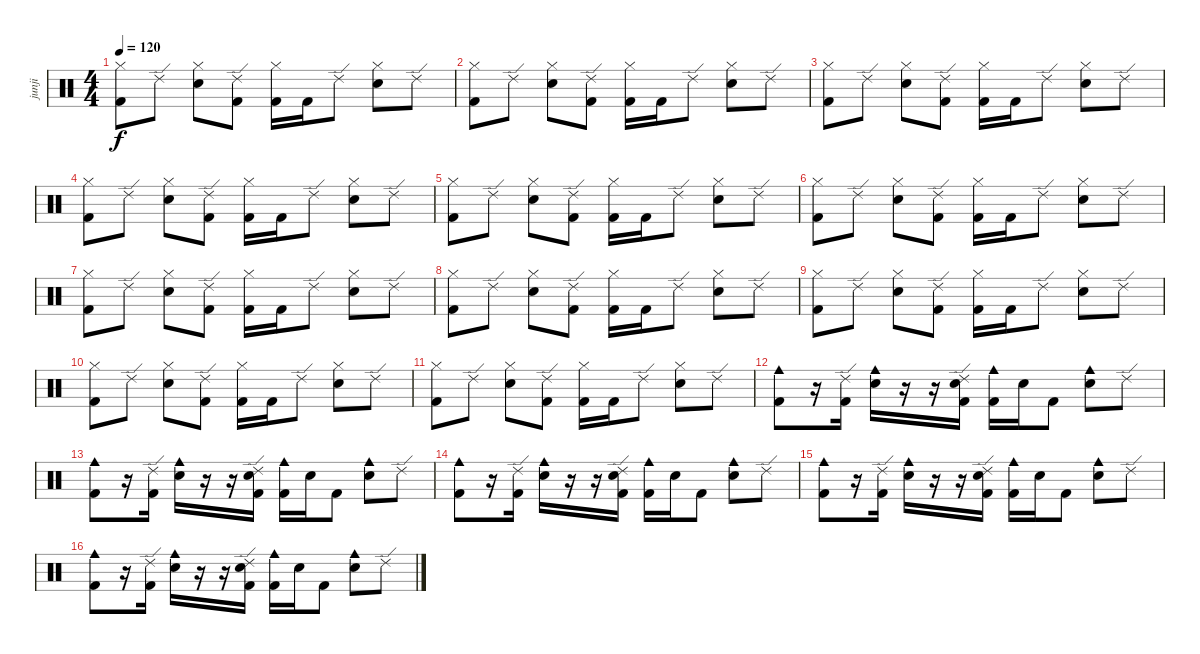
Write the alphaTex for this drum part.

\track ("junji" "junji") {instrument percussion}
\staff {score}
\articulation defaults
\ts (4 4)
\tempo 120
\clef neutral
\ks c
("Hi-Hat (closed)" "Kick (hit) 2").8{dy f} "Ride (edge) 2".8 ("Hi-Hat (closed)" "Snare (hit) 2").8 ("Ride (edge) 2" "Kick (hit) 2").8 ("Hi-Hat (closed)" "Kick (hit) 2"{x}).16 "Kick (hit) 2".16 "Ride (edge) 2".8 ("Hi-Hat (closed)" "Snare (hit) 2").8 "Ride (edge) 2".8 |
("Hi-Hat (closed)" "Kick (hit) 2").8 "Ride (edge) 2".8 ("Hi-Hat (closed)" "Snare (hit) 2").8 ("Ride (edge) 2" "Kick (hit) 2").8 ("Hi-Hat (closed)" "Kick (hit) 2"{x}).16 "Kick (hit) 2".16 "Ride (edge) 2".8 ("Hi-Hat (closed)" "Snare (hit) 2").8 "Ride (edge) 2".8 |
("Hi-Hat (closed)" "Kick (hit) 2").8 "Ride (edge) 2".8 ("Hi-Hat (closed)" "Snare (hit) 2").8 ("Ride (edge) 2" "Kick (hit) 2").8 ("Hi-Hat (closed)" "Kick (hit) 2"{x}).16 "Kick (hit) 2".16 "Ride (edge) 2".8 ("Hi-Hat (closed)" "Snare (hit) 2").8 "Ride (edge) 2".8 |
("Hi-Hat (closed)" "Kick (hit) 2").8 "Ride (edge) 2".8 ("Hi-Hat (closed)" "Snare (hit) 2").8 ("Ride (edge) 2" "Kick (hit) 2").8 ("Hi-Hat (closed)" "Kick (hit) 2"{x}).16 "Kick (hit) 2".16 "Ride (edge) 2".8 ("Hi-Hat (closed)" "Snare (hit) 2").8 "Ride (edge) 2".8 |
("Hi-Hat (closed)" "Kick (hit) 2").8 "Ride (edge) 2".8 ("Hi-Hat (closed)" "Snare (hit) 2").8 ("Ride (edge) 2" "Kick (hit) 2").8 ("Hi-Hat (closed)" "Kick (hit) 2"{x}).16 "Kick (hit) 2".16 "Ride (edge) 2".8 ("Hi-Hat (closed)" "Snare (hit) 2").8 "Ride (edge) 2".8 |
("Hi-Hat (closed)" "Kick (hit) 2").8 "Ride (edge) 2".8 ("Hi-Hat (closed)" "Snare (hit) 2").8 ("Ride (edge) 2" "Kick (hit) 2").8 ("Hi-Hat (closed)" "Kick (hit) 2"{x}).16 "Kick (hit) 2".16 "Ride (edge) 2".8 ("Hi-Hat (closed)" "Snare (hit) 2").8 "Ride (edge) 2".8 |
("Hi-Hat (closed)" "Kick (hit) 2").8 "Ride (edge) 2".8 ("Hi-Hat (closed)" "Snare (hit) 2").8 ("Ride (edge) 2" "Kick (hit) 2").8 ("Hi-Hat (closed)" "Kick (hit) 2"{x}).16 "Kick (hit) 2".16 "Ride (edge) 2".8 ("Hi-Hat (closed)" "Snare (hit) 2").8 "Ride (edge) 2".8 |
("Hi-Hat (closed)" "Kick (hit) 2").8 "Ride (edge) 2".8 ("Hi-Hat (closed)" "Snare (hit) 2").8 ("Ride (edge) 2" "Kick (hit) 2").8 ("Hi-Hat (closed)" "Kick (hit) 2"{x}).16 "Kick (hit) 2".16 "Ride (edge) 2".8 ("Hi-Hat (closed)" "Snare (hit) 2").8 "Ride (edge) 2".8 |
("Hi-Hat (closed)" "Kick (hit) 2").8 "Ride (edge) 2".8 ("Hi-Hat (closed)" "Snare (hit) 2").8 ("Ride (edge) 2" "Kick (hit) 2").8 ("Hi-Hat (closed)" "Kick (hit) 2"{x}).16 "Kick (hit) 2".16 "Ride (edge) 2".8 ("Hi-Hat (closed)" "Snare (hit) 2").8 "Ride (edge) 2".8 |
("Hi-Hat (closed)" "Kick (hit) 2").8 "Ride (edge) 2".8 ("Hi-Hat (closed)" "Snare (hit) 2").8 ("Ride (edge) 2" "Kick (hit) 2").8 ("Hi-Hat (closed)" "Kick (hit) 2"{x}).16 "Kick (hit) 2".16 "Ride (edge) 2".8 ("Hi-Hat (closed)" "Snare (hit) 2").8 "Ride (edge) 2".8 |
("Hi-Hat (closed)" "Kick (hit) 2").8 "Ride (edge) 2".8 ("Hi-Hat (closed)" "Snare (hit) 2").8 ("Ride (edge) 2" "Kick (hit) 2").8 ("Hi-Hat (closed)" "Kick (hit) 2"{x}).16 "Kick (hit) 2".16 "Ride (edge) 2".8 ("Hi-Hat (closed)" "Snare (hit) 2").8 "Ride (edge) 2".8 |
("Cowbell medium (hit)" "Kick (hit) 2").8 r.16 ("Ride (edge) 2"{x} "Kick (hit) 2").16 ("Cowbell medium (hit)" "Snare (hit) 2").16 r.16 r.16 ("Ride (edge) 2"{x} "Snare (hit) 2" "Kick (hit) 2"{x}).16 ("Cowbell medium (hit)" "Kick (hit) 2"{x}).16 "Snare (hit) 2".16 "Kick (hit) 2".8 ("Cowbell medium (hit)" "Snare (hit) 2").8 "Ride (edge) 2".8 |
("Cowbell medium (hit)" "Kick (hit) 2").8 r.16 ("Ride (edge) 2"{x} "Kick (hit) 2").16 ("Cowbell medium (hit)" "Snare (hit) 2").16 r.16 r.16 ("Ride (edge) 2"{x} "Snare (hit) 2" "Kick (hit) 2"{x}).16 ("Cowbell medium (hit)" "Kick (hit) 2"{x}).16 "Snare (hit) 2".16 "Kick (hit) 2".8 ("Cowbell medium (hit)" "Snare (hit) 2").8 "Ride (edge) 2".8 |
("Cowbell medium (hit)" "Kick (hit) 2").8 r.16 ("Ride (edge) 2"{x} "Kick (hit) 2").16 ("Cowbell medium (hit)" "Snare (hit) 2").16 r.16 r.16 ("Ride (edge) 2"{x} "Snare (hit) 2" "Kick (hit) 2"{x}).16 ("Cowbell medium (hit)" "Kick (hit) 2"{x}).16 "Snare (hit) 2".16 "Kick (hit) 2".8 ("Cowbell medium (hit)" "Snare (hit) 2").8 "Ride (edge) 2".8 |
("Cowbell medium (hit)" "Kick (hit) 2").8 r.16 ("Ride (edge) 2"{x} "Kick (hit) 2").16 ("Cowbell medium (hit)" "Snare (hit) 2").16 r.16 r.16 ("Ride (edge) 2"{x} "Snare (hit) 2" "Kick (hit) 2"{x}).16 ("Cowbell medium (hit)" "Kick (hit) 2"{x}).16 "Snare (hit) 2".16 "Kick (hit) 2".8 ("Cowbell medium (hit)" "Snare (hit) 2").8 "Ride (edge) 2".8 |
("Cowbell medium (hit)" "Kick (hit) 2").8 r.16 ("Ride (edge) 2"{x} "Kick (hit) 2").16 ("Cowbell medium (hit)" "Snare (hit) 2").16 r.16 r.16 ("Ride (edge) 2"{x} "Snare (hit) 2" "Kick (hit) 2"{x}).16 ("Cowbell medium (hit)" "Kick (hit) 2"{x}).16 "Snare (hit) 2".16 "Kick (hit) 2".8 ("Cowbell medium (hit)" "Snare (hit) 2").8 "Ride (edge) 2".8
